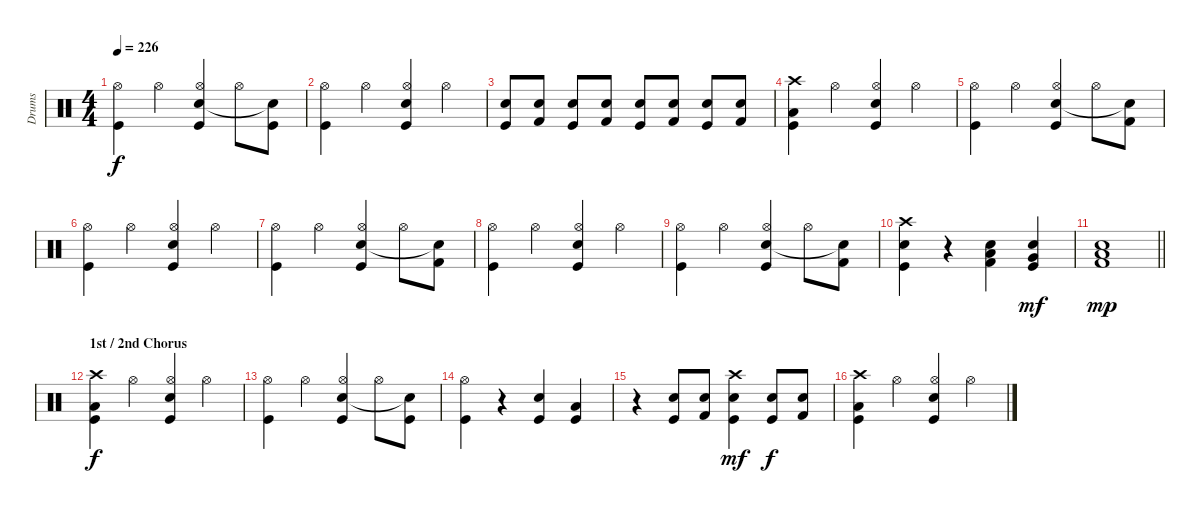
\track ("Drums" "Drums") {instrument percussion}
\staff {score}
\articulation defaults
\ts (4 4)
\tempo 226
\clef neutral
\ks c
("Kick (hit)" "Hi-Hat (open)").4{dy f} "Hi-Hat (open)".4 ("Kick (hit)" "Snare (hit) 2" "Hi-Hat (open)").4 "Hi-Hat (open)".8 ("Kick (hit)" "Snare (hit)"{t}).8 |
("Kick (hit)" "Hi-Hat (open)").4 "Hi-Hat (open)".4 ("Kick (hit)" "Snare (hit) 2" "Hi-Hat (open)").4 "Hi-Hat (open)".4 |
("Kick (hit)" "Snare (hit) 2").8 ("Kick (hit) 2" "Snare (hit) 2").8 ("Kick (hit)" "Snare (hit) 2").8 ("Kick (hit) 2" "Snare (hit) 2").8 ("Kick (hit)" "Snare (hit) 2").8 ("Kick (hit) 2" "Snare (hit) 2").8 ("Kick (hit)" "Snare (hit) 2").8 ("Kick (hit) 2" "Snare (hit) 2").8 |
("Kick (hit)" "Low Tom (hit)" "Crash high (hit)").4 "Hi-Hat (open)".4 ("Kick (hit)" "Snare (hit) 2" "Hi-Hat (open)").4 "Hi-Hat (open)".4 |
("Kick (hit)" "Hi-Hat (open)").4 "Hi-Hat (open)".4 ("Kick (hit)" "Snare (hit) 2" "Hi-Hat (open)").4 "Hi-Hat (open)".8 ("Kick (hit) 2" "Snare (hit)"{t}).8 |
("Kick (hit)" "Hi-Hat (open)").4 "Hi-Hat (open)".4 ("Kick (hit)" "Snare (hit) 2" "Hi-Hat (open)").4 "Hi-Hat (open)".4 |
("Kick (hit)" "Hi-Hat (open)").4 "Hi-Hat (open)".4 ("Kick (hit)" "Snare (hit) 2" "Hi-Hat (open)").4 "Hi-Hat (open)".8 ("Kick (hit) 2" "Snare (hit)"{t}).8 |
("Kick (hit)" "Hi-Hat (open)").4 "Hi-Hat (open)".4 ("Kick (hit)" "Snare (hit) 2" "Hi-Hat (open)").4 "Hi-Hat (open)".4 |
("Kick (hit)" "Hi-Hat (open)").4 "Hi-Hat (open)".4 ("Kick (hit)" "Snare (hit) 2" "Hi-Hat (open)").4 "Hi-Hat (open)".8 ("Kick (hit) 2" "Snare (hit)"{t}).8 |
("Kick (hit)" "Snare (hit) 2" "Crash high (hit)").4 r.4 ("Kick (hit) 2" "Snare (hit) 2" "Low Tom (hit)").4 ("Kick (hit)" "Electric Snare (hit)" "Very Low Tom (hit)").4{dy mf} |
\barLineRight lightlight
("Kick (hit) 2" "Electric Snare (hit)" "Low Floor Tom (hit)").1{dy mp} |
\section ("" "1st / 2nd Chorus")
("Kick (hit)" "Low Tom (hit)" "Crash high (hit)").4{dy f} "Hi-Hat (open)".4 ("Kick (hit)" "Snare (hit) 2" "Hi-Hat (open)").4 "Hi-Hat (open)".4 |
("Kick (hit)" "Hi-Hat (open)").4 "Hi-Hat (open)".4 ("Kick (hit)" "Snare (hit) 2" "Hi-Hat (open)").4 "Hi-Hat (open)".8 ("Kick (hit)" "Snare (hit)"{t}).8 |
("Kick (hit)" "Hi-Hat (open)").4 r.4 ("Kick (hit)" "Snare (hit) 2").4 ("Kick (hit)" "Low Floor Tom (hit)").4 |
r.4 ("Kick (hit)" "Snare (hit) 2").8 ("Kick (hit) 2" "Electric Snare (hit)").8 ("Kick (hit)" "Snare (hit) 2" "Crash high (hit)").4{dy mf} ("Kick (hit)" "Snare (hit) 2").8{dy f} ("Kick (hit) 2" "Electric Snare (hit)").8 |
("Kick (hit)" "Low Tom (hit)" "Crash high (hit)").4 "Hi-Hat (open)".4 ("Kick (hit)" "Snare (hit) 2" "Hi-Hat (open)").4 "Hi-Hat (open)".4
